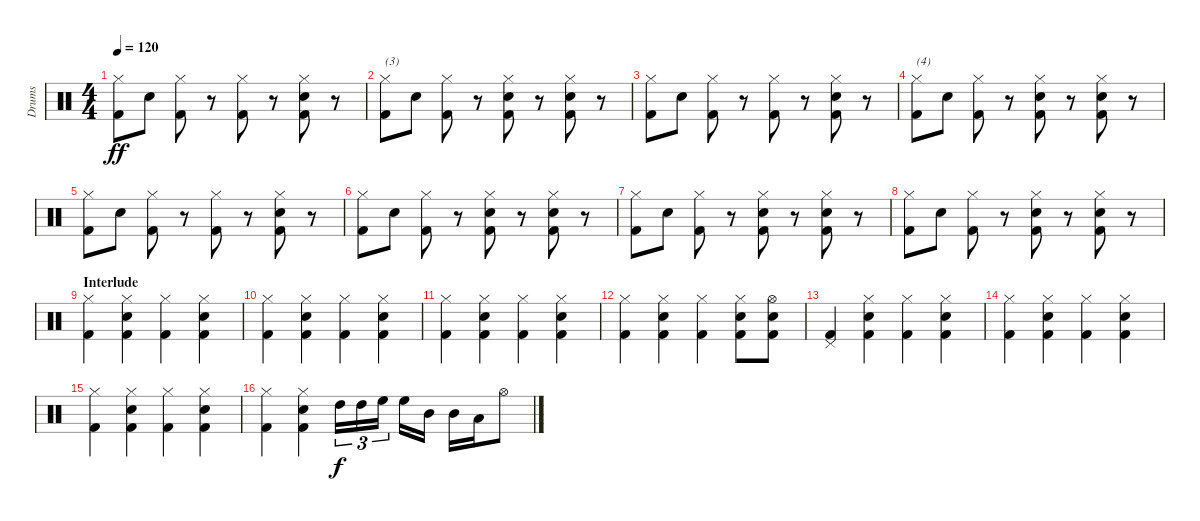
\track ("Drums" "Drums") {instrument percussion}
\staff {score}
\articulation defaults
\ts (4 4)
\tempo 120
\clef neutral
\ks c
("Hi-Hat (closed)" "Kick (hit) 2").8{dy ff} "Snare (hit) 2".8 ("Hi-Hat (closed)" "Kick (hit) 2").8 r.8 ("Hi-Hat (closed)" "Kick (hit) 2").8 r.8 ("Hi-Hat (closed)" "Snare (hit) 2" "Kick (hit) 2").8 r.8 |
("Hi-Hat (closed)" "Kick (hit) 2").8{txt "(3)"} "Snare (hit) 2".8 ("Hi-Hat (closed)" "Kick (hit) 2").8 r.8 ("Hi-Hat (closed)" "Snare (hit) 2" "Kick (hit) 2").8 r.8 ("Hi-Hat (closed)" "Snare (hit) 2" "Kick (hit) 2").8 r.8 |
("Hi-Hat (closed)" "Kick (hit) 2").8 "Snare (hit) 2".8 ("Hi-Hat (closed)" "Kick (hit) 2").8 r.8 ("Hi-Hat (closed)" "Kick (hit) 2").8 r.8 ("Hi-Hat (closed)" "Snare (hit) 2" "Kick (hit) 2").8 r.8 |
("Hi-Hat (closed)" "Kick (hit) 2").8{txt "(4)"} "Snare (hit) 2".8 ("Hi-Hat (closed)" "Kick (hit) 2").8 r.8 ("Hi-Hat (closed)" "Snare (hit) 2" "Kick (hit) 2").8 r.8 ("Hi-Hat (closed)" "Snare (hit) 2" "Kick (hit) 2").8 r.8 |
("Hi-Hat (closed)" "Kick (hit) 2").8 "Snare (hit) 2".8 ("Hi-Hat (closed)" "Kick (hit) 2").8 r.8 ("Hi-Hat (closed)" "Kick (hit) 2").8 r.8 ("Hi-Hat (closed)" "Snare (hit) 2" "Kick (hit) 2").8 r.8 |
("Hi-Hat (closed)" "Kick (hit) 2").8 "Snare (hit) 2".8 ("Hi-Hat (closed)" "Kick (hit) 2").8 r.8 ("Hi-Hat (closed)" "Snare (hit) 2" "Kick (hit) 2").8 r.8 ("Hi-Hat (closed)" "Snare (hit) 2" "Kick (hit) 2").8 r.8 |
("Hi-Hat (closed)" "Kick (hit) 2").8 "Snare (hit) 2".8 ("Hi-Hat (closed)" "Kick (hit) 2").8 r.8 ("Hi-Hat (closed)" "Snare (hit) 2" "Kick (hit) 2").8 r.8 ("Hi-Hat (closed)" "Snare (hit) 2" "Kick (hit) 2").8 r.8 |
("Hi-Hat (closed)" "Kick (hit) 2").8 "Snare (hit) 2".8 ("Hi-Hat (closed)" "Kick (hit) 2").8 r.8 ("Hi-Hat (closed)" "Snare (hit) 2" "Kick (hit) 2").8 r.8 ("Hi-Hat (closed)" "Snare (hit) 2" "Kick (hit) 2").8 r.8 |
\section ("" "Interlude")
("Hi-Hat (closed)" "Kick (hit) 2").4 ("Hi-Hat (closed)" "Snare (hit) 2" "Kick (hit) 2").4 ("Hi-Hat (closed)" "Kick (hit) 2").4 ("Hi-Hat (closed)" "Snare (hit) 2" "Kick (hit) 2").4 |
("Hi-Hat (closed)" "Kick (hit) 2").4 ("Hi-Hat (closed)" "Snare (hit) 2" "Kick (hit) 2").4 ("Hi-Hat (closed)" "Kick (hit) 2").4 ("Hi-Hat (closed)" "Snare (hit) 2" "Kick (hit) 2").4 |
("Hi-Hat (closed)" "Kick (hit) 2").4 ("Hi-Hat (closed)" "Snare (hit) 2" "Kick (hit) 2").4 ("Hi-Hat (closed)" "Kick (hit) 2").4 ("Hi-Hat (closed)" "Snare (hit) 2" "Kick (hit) 2").4 |
("Hi-Hat (closed)" "Kick (hit) 2").4 ("Hi-Hat (closed)" "Snare (hit) 2" "Kick (hit) 2").4 ("Hi-Hat (closed)" "Kick (hit) 2").4 ("Hi-Hat (closed)" "Snare (hit) 2" "Kick (hit) 2").8 ("Hi-Hat (open)" "Snare (hit) 2" "Kick (hit) 2").8 |
("Pedal Hi-Hat (hit)" "Kick (hit) 2").4 ("Hi-Hat (closed)" "Snare (hit) 2" "Kick (hit) 2").4 ("Hi-Hat (closed)" "Kick (hit) 2").4 ("Hi-Hat (closed)" "Snare (hit) 2" "Kick (hit) 2").4 |
("Hi-Hat (closed)" "Kick (hit) 2").4 ("Hi-Hat (closed)" "Snare (hit) 2" "Kick (hit) 2").4 ("Hi-Hat (closed)" "Kick (hit) 2").4 ("Hi-Hat (closed)" "Snare (hit) 2" "Kick (hit) 2").4 |
("Hi-Hat (closed)" "Kick (hit) 2").4 ("Hi-Hat (closed)" "Snare (hit) 2" "Kick (hit) 2").4 ("Hi-Hat (closed)" "Kick (hit) 2").4 ("Hi-Hat (closed)" "Snare (hit) 2" "Kick (hit) 2").4 |
("Hi-Hat (closed)" "Kick (hit) 2").4 ("Hi-Hat (closed)" "Snare (hit) 2" "Kick (hit) 2").4 "High Tom (hit)".16{tu (3 2) dy f} "High Tom (hit)".16{tu (3 2)} "High Floor Tom (hit)".16{tu (3 2)} "High Floor Tom (hit)".16 "Mid Tom (hit)".16 "Mid Tom (hit)".16 "Low Tom (hit)".16 "Hi-Hat (open)".8
